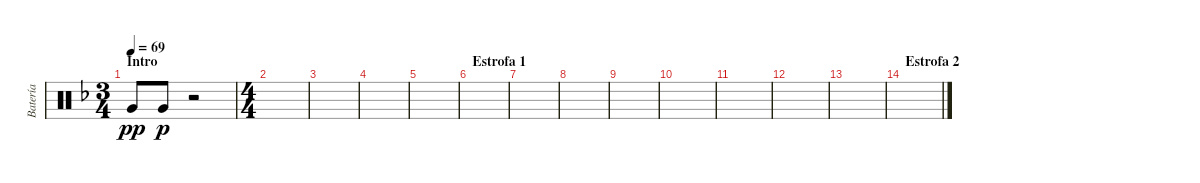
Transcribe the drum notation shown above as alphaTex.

\track ("Batería" "Batería") {instrument percussion}
\staff {score}
\articulation defaults
\ts (3 4)
\section ("" "Intro")
\tempo 69
\clef neutral
\ks dminor "Very Low Tom (hit)".8{dy pp} "Very Low Tom (hit)".8{dy p}
r.2 |
\ts (4 4)
|
|
|
|
\section ("" "Estrofa 1")
|
|
|
|
|
|
|
|
\section ("" "Estrofa 2")
